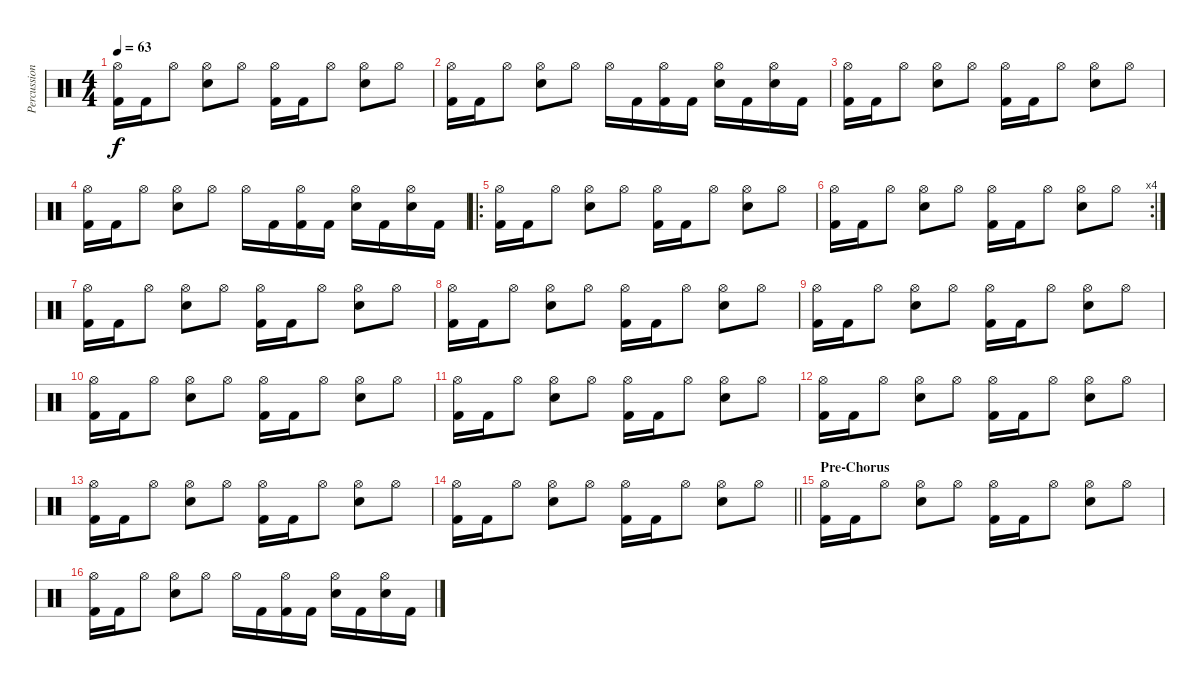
\track ("Percussion" "Percussion") {instrument percussion}
\staff {score}
\articulation defaults
\ts (4 4)
\tempo 63
\clef neutral
\ks c
("Hi-Hat (open)" "Kick (hit) 2").16{dy f} "Kick (hit) 2".16 "Hi-Hat (open)".8 ("Hi-Hat (open)" "Electric Snare (hit)").8 "Hi-Hat (open)".8 ("Hi-Hat (open)" "Kick (hit) 2").16 "Kick (hit) 2".16 "Hi-Hat (open)".8 ("Hi-Hat (open)" "Electric Snare (hit)").8 "Hi-Hat (open)".8 |
("Hi-Hat (open)" "Kick (hit) 2").16 "Kick (hit) 2".16 "Hi-Hat (open)".8 ("Hi-Hat (open)" "Electric Snare (hit)").8 "Hi-Hat (open)".8 "Hi-Hat (open)".16 "Kick (hit) 2".16 ("Hi-Hat (open)" "Kick (hit) 2").16 "Kick (hit) 2".16 ("Hi-Hat (open)" "Electric Snare (hit)").16 "Kick (hit) 2".16 ("Hi-Hat (open)" "Electric Snare (hit)").16 "Kick (hit) 2".16 |
("Hi-Hat (open)" "Kick (hit) 2").16 "Kick (hit) 2".16 "Hi-Hat (open)".8 ("Hi-Hat (open)" "Electric Snare (hit)").8 "Hi-Hat (open)".8 ("Hi-Hat (open)" "Kick (hit) 2").16 "Kick (hit) 2".16 "Hi-Hat (open)".8 ("Hi-Hat (open)" "Electric Snare (hit)").8 "Hi-Hat (open)".8 |
("Hi-Hat (open)" "Kick (hit) 2").16 "Kick (hit) 2".16 "Hi-Hat (open)".8 ("Hi-Hat (open)" "Electric Snare (hit)").8 "Hi-Hat (open)".8 "Hi-Hat (open)".16 "Kick (hit) 2".16 ("Hi-Hat (open)" "Kick (hit) 2").16 "Kick (hit) 2".16 ("Hi-Hat (open)" "Electric Snare (hit)").16 "Kick (hit) 2".16 ("Hi-Hat (open)" "Electric Snare (hit)").16 "Kick (hit) 2".16 |
\ro
("Hi-Hat (open)" "Kick (hit) 2").16 "Kick (hit) 2".16 "Hi-Hat (open)".8 ("Hi-Hat (open)" "Electric Snare (hit)").8 "Hi-Hat (open)".8 ("Hi-Hat (open)" "Kick (hit) 2").16 "Kick (hit) 2".16 "Hi-Hat (open)".8 ("Hi-Hat (open)" "Electric Snare (hit)").8 "Hi-Hat (open)".8 |
\rc 4
("Hi-Hat (open)" "Kick (hit) 2").16 "Kick (hit) 2".16 "Hi-Hat (open)".8 ("Hi-Hat (open)" "Electric Snare (hit)").8 "Hi-Hat (open)".8 ("Hi-Hat (open)" "Kick (hit) 2").16 "Kick (hit) 2".16 "Hi-Hat (open)".8 ("Hi-Hat (open)" "Electric Snare (hit)").8 "Hi-Hat (open)".8 |
("Hi-Hat (open)" "Kick (hit) 2").16 "Kick (hit) 2".16 "Hi-Hat (open)".8 ("Hi-Hat (open)" "Electric Snare (hit)").8 "Hi-Hat (open)".8 ("Hi-Hat (open)" "Kick (hit) 2").16 "Kick (hit) 2".16 "Hi-Hat (open)".8 ("Hi-Hat (open)" "Electric Snare (hit)").8 "Hi-Hat (open)".8 |
("Hi-Hat (open)" "Kick (hit) 2").16 "Kick (hit) 2".16 "Hi-Hat (open)".8 ("Hi-Hat (open)" "Electric Snare (hit)").8 "Hi-Hat (open)".8 ("Hi-Hat (open)" "Kick (hit) 2").16 "Kick (hit) 2".16 "Hi-Hat (open)".8 ("Hi-Hat (open)" "Electric Snare (hit)").8 "Hi-Hat (open)".8 |
("Hi-Hat (open)" "Kick (hit) 2").16 "Kick (hit) 2".16 "Hi-Hat (open)".8 ("Hi-Hat (open)" "Electric Snare (hit)").8 "Hi-Hat (open)".8 ("Hi-Hat (open)" "Kick (hit) 2").16 "Kick (hit) 2".16 "Hi-Hat (open)".8 ("Hi-Hat (open)" "Electric Snare (hit)").8 "Hi-Hat (open)".8 |
("Hi-Hat (open)" "Kick (hit) 2").16 "Kick (hit) 2".16 "Hi-Hat (open)".8 ("Hi-Hat (open)" "Electric Snare (hit)").8 "Hi-Hat (open)".8 ("Hi-Hat (open)" "Kick (hit) 2").16 "Kick (hit) 2".16 "Hi-Hat (open)".8 ("Hi-Hat (open)" "Electric Snare (hit)").8 "Hi-Hat (open)".8 |
("Hi-Hat (open)" "Kick (hit) 2").16 "Kick (hit) 2".16 "Hi-Hat (open)".8 ("Hi-Hat (open)" "Electric Snare (hit)").8 "Hi-Hat (open)".8 ("Hi-Hat (open)" "Kick (hit) 2").16 "Kick (hit) 2".16 "Hi-Hat (open)".8 ("Hi-Hat (open)" "Electric Snare (hit)").8 "Hi-Hat (open)".8 |
("Hi-Hat (open)" "Kick (hit) 2").16 "Kick (hit) 2".16 "Hi-Hat (open)".8 ("Hi-Hat (open)" "Electric Snare (hit)").8 "Hi-Hat (open)".8 ("Hi-Hat (open)" "Kick (hit) 2").16 "Kick (hit) 2".16 "Hi-Hat (open)".8 ("Hi-Hat (open)" "Electric Snare (hit)").8 "Hi-Hat (open)".8 |
("Hi-Hat (open)" "Kick (hit) 2").16 "Kick (hit) 2".16 "Hi-Hat (open)".8 ("Hi-Hat (open)" "Electric Snare (hit)").8 "Hi-Hat (open)".8 ("Hi-Hat (open)" "Kick (hit) 2").16 "Kick (hit) 2".16 "Hi-Hat (open)".8 ("Hi-Hat (open)" "Electric Snare (hit)").8 "Hi-Hat (open)".8 |
\barLineRight lightlight
("Hi-Hat (open)" "Kick (hit) 2").16 "Kick (hit) 2".16 "Hi-Hat (open)".8 ("Hi-Hat (open)" "Electric Snare (hit)").8 "Hi-Hat (open)".8 ("Hi-Hat (open)" "Kick (hit) 2").16 "Kick (hit) 2".16 "Hi-Hat (open)".8 ("Hi-Hat (open)" "Electric Snare (hit)").8 "Hi-Hat (open)".8 |
\section ("" "Pre-Chorus")
("Hi-Hat (open)" "Kick (hit) 2").16 "Kick (hit) 2".16 "Hi-Hat (open)".8 ("Hi-Hat (open)" "Electric Snare (hit)").8 "Hi-Hat (open)".8 ("Hi-Hat (open)" "Kick (hit) 2").16 "Kick (hit) 2".16 "Hi-Hat (open)".8 ("Hi-Hat (open)" "Electric Snare (hit)").8 "Hi-Hat (open)".8 |
("Hi-Hat (open)" "Kick (hit) 2").16 "Kick (hit) 2".16 "Hi-Hat (open)".8 ("Hi-Hat (open)" "Electric Snare (hit)").8 "Hi-Hat (open)".8 "Hi-Hat (open)".16 "Kick (hit) 2".16 ("Hi-Hat (open)" "Kick (hit) 2").16 "Kick (hit) 2".16 ("Hi-Hat (open)" "Electric Snare (hit)").16 "Kick (hit) 2".16 ("Hi-Hat (open)" "Electric Snare (hit)").16 "Kick (hit) 2".16
